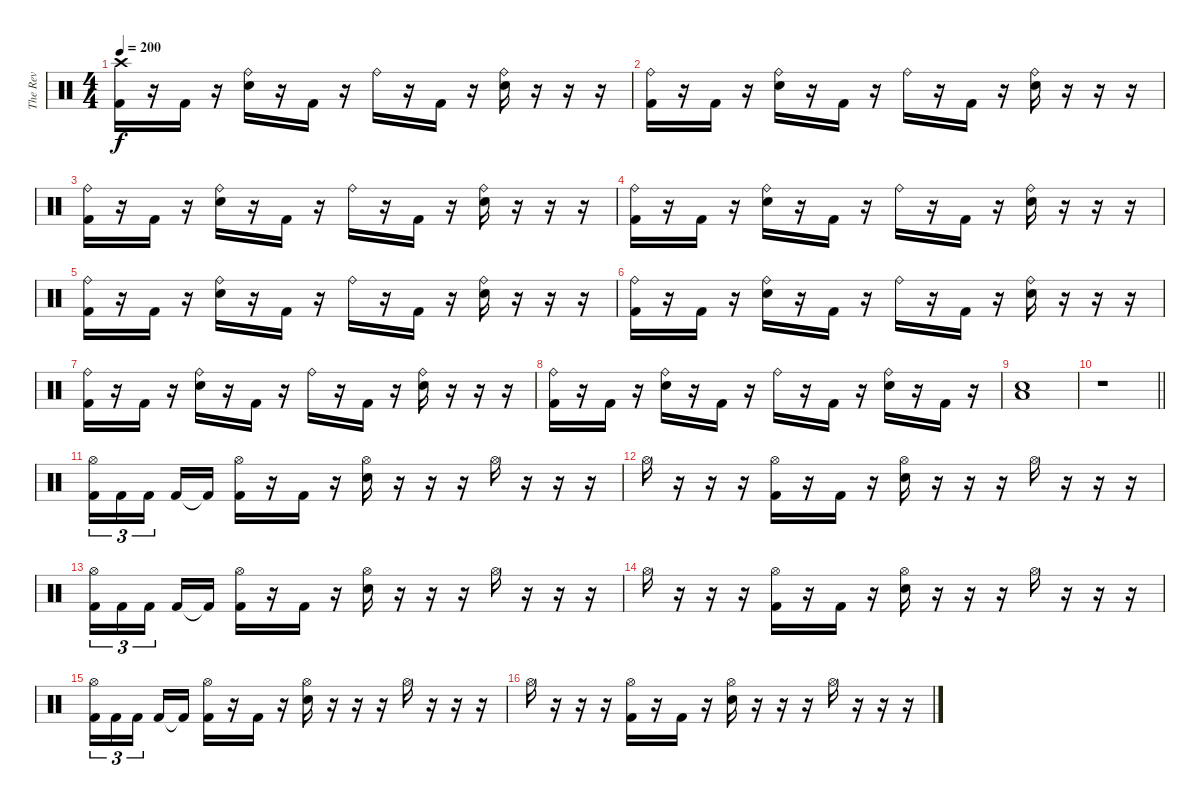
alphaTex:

\track ("The Rev" "The Rev") {instrument percussion}
\staff {score}
\articulation defaults
\ts (4 4)
\tempo 200
\clef neutral
\ks c
("Crash high (hit)" "Kick (hit) 2").16{dy f} r.16 "Kick (hit) 2".16 r.16 ("Ride (bell)" "Electric Snare (hit)").16 r.16 "Kick (hit) 2".16 r.16 "Ride (bell)".16 r.16 "Kick (hit) 2".16 r.16 ("Ride (bell)" "Electric Snare (hit)").16 r.16 r.16 r.16 |
("Ride (bell)" "Kick (hit) 2").16 r.16 "Kick (hit) 2".16 r.16 ("Ride (bell)" "Electric Snare (hit)").16 r.16 "Kick (hit) 2".16 r.16 "Ride (bell)".16 r.16 "Kick (hit) 2".16 r.16 ("Ride (bell)" "Electric Snare (hit)").16 r.16 r.16 r.16 |
("Ride (bell)" "Kick (hit) 2").16 r.16 "Kick (hit) 2".16 r.16 ("Ride (bell)" "Electric Snare (hit)").16 r.16 "Kick (hit) 2".16 r.16 "Ride (bell)".16 r.16 "Kick (hit) 2".16 r.16 ("Ride (bell)" "Electric Snare (hit)").16 r.16 r.16 r.16 |
("Ride (bell)" "Kick (hit) 2").16 r.16 "Kick (hit) 2".16 r.16 ("Ride (bell)" "Electric Snare (hit)").16 r.16 "Kick (hit) 2".16 r.16 "Ride (bell)".16 r.16 "Kick (hit) 2".16 r.16 ("Ride (bell)" "Electric Snare (hit)").16 r.16 r.16 r.16 |
("Ride (bell)" "Kick (hit) 2").16 r.16 "Kick (hit) 2".16 r.16 ("Ride (bell)" "Electric Snare (hit)").16 r.16 "Kick (hit) 2".16 r.16 "Ride (bell)".16 r.16 "Kick (hit) 2".16 r.16 ("Ride (bell)" "Electric Snare (hit)").16 r.16 r.16 r.16 |
("Ride (bell)" "Kick (hit) 2").16 r.16 "Kick (hit) 2".16 r.16 ("Ride (bell)" "Electric Snare (hit)").16 r.16 "Kick (hit) 2".16 r.16 "Ride (bell)".16 r.16 "Kick (hit) 2".16 r.16 ("Ride (bell)" "Electric Snare (hit)").16 r.16 r.16 r.16 |
("Ride (bell)" "Kick (hit) 2").16 r.16 "Kick (hit) 2".16 r.16 ("Ride (bell)" "Electric Snare (hit)").16 r.16 "Kick (hit) 2".16 r.16 "Ride (bell)".16 r.16 "Kick (hit) 2".16 r.16 ("Ride (bell)" "Electric Snare (hit)").16 r.16 r.16 r.16 |
("Ride (bell)" "Kick (hit) 2").16 r.16 "Kick (hit) 2".16 r.16 ("Ride (bell)" "Electric Snare (hit)").16 r.16 "Kick (hit) 2".16 r.16 "Ride (bell)".16 r.16 "Kick (hit) 2".16 r.16 ("Ride (bell)" "Electric Snare (hit)").16 r.16 "Kick (hit) 2".16 r.16 |
("Low Floor Tom (hit)" "Electric Snare (hit)").1 |
\barLineRight lightlight
r.1 |
("Hi-Hat (open)" "Kick (hit) 2").16{tu (3 2)} "Kick (hit) 2".16{tu (3 2)} "Kick (hit) 2".16{tu (3 2) beam splitsecondary} "Kick (hit) 2".16 "Kick (hit) 2"{t}.16 ("Hi-Hat (open)" "Kick (hit) 2").16 r.16 "Kick (hit) 2".16 r.16 ("Hi-Hat (open)" "Electric Snare (hit)").16 r.16 r.16 r.16 "Hi-Hat (open)".16 r.16 r.16 r.16 |
"Hi-Hat (open)".16 r.16 r.16 r.16 ("Hi-Hat (open)" "Kick (hit) 2").16 r.16 "Kick (hit) 2".16 r.16 ("Hi-Hat (open)" "Electric Snare (hit)").16 r.16 r.16 r.16 "Hi-Hat (open)".16 r.16 r.16 r.16 |
("Hi-Hat (open)" "Kick (hit) 2").16{tu (3 2)} "Kick (hit) 2".16{tu (3 2)} "Kick (hit) 2".16{tu (3 2) beam splitsecondary} "Kick (hit) 2".16 "Kick (hit) 2"{t}.16 ("Hi-Hat (open)" "Kick (hit) 2").16 r.16 "Kick (hit) 2".16 r.16 ("Hi-Hat (open)" "Electric Snare (hit)").16 r.16 r.16 r.16 "Hi-Hat (open)".16 r.16 r.16 r.16 |
"Hi-Hat (open)".16 r.16 r.16 r.16 ("Hi-Hat (open)" "Kick (hit) 2").16 r.16 "Kick (hit) 2".16 r.16 ("Hi-Hat (open)" "Electric Snare (hit)").16 r.16 r.16 r.16 "Hi-Hat (open)".16 r.16 r.16 r.16 |
("Hi-Hat (open)" "Kick (hit) 2").16{tu (3 2)} "Kick (hit) 2".16{tu (3 2)} "Kick (hit) 2".16{tu (3 2) beam splitsecondary} "Kick (hit) 2".16 "Kick (hit) 2"{t}.16 ("Hi-Hat (open)" "Kick (hit) 2").16 r.16 "Kick (hit) 2".16 r.16 ("Hi-Hat (open)" "Electric Snare (hit)").16 r.16 r.16 r.16 "Hi-Hat (open)".16 r.16 r.16 r.16 |
"Hi-Hat (open)".16 r.16 r.16 r.16 ("Hi-Hat (open)" "Kick (hit) 2").16 r.16 "Kick (hit) 2".16 r.16 ("Hi-Hat (open)" "Electric Snare (hit)").16 r.16 r.16 r.16 "Hi-Hat (open)".16 r.16 r.16 r.16
